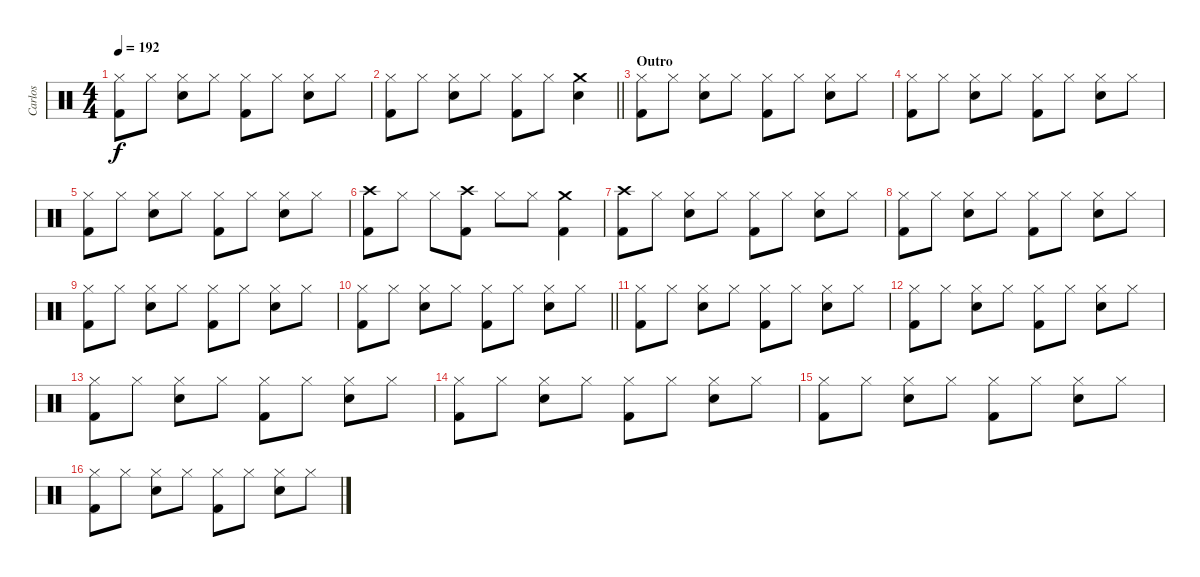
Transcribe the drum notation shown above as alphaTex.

\track ("Carlos" "Carlos") {instrument percussion}
\staff {score}
\articulation defaults
\ts (4 4)
\tempo 192
\clef neutral
\ks c
("Hi-Hat (closed)" "Kick (hit) 2").8{dy f} "Hi-Hat (closed)".8 ("Hi-Hat (closed)" "Snare (hit) 2").8 "Hi-Hat (closed)".8 ("Hi-Hat (closed)" "Kick (hit) 2").8 "Hi-Hat (closed)".8 ("Hi-Hat (closed)" "Snare (hit) 2").8 "Hi-Hat (closed)".8 |
\barLineRight lightlight
("Hi-Hat (closed)" "Kick (hit) 2").8 "Hi-Hat (closed)".8 ("Hi-Hat (closed)" "Snare (hit) 2").8 "Hi-Hat (closed)".8 ("Hi-Hat (closed)" "Kick (hit) 2").8 "Hi-Hat (closed)".8 ("Crash medium (hit)" "Snare (hit) 2").4 |
\section ("" "Outro")
("Hi-Hat (closed)" "Kick (hit) 2").8 "Hi-Hat (closed)".8 ("Hi-Hat (closed)" "Snare (hit) 2").8 "Hi-Hat (closed)".8 ("Hi-Hat (closed)" "Kick (hit) 2").8 "Hi-Hat (closed)".8 ("Hi-Hat (closed)" "Snare (hit) 2").8 "Hi-Hat (closed)".8 |
("Hi-Hat (closed)" "Kick (hit) 2").8 "Hi-Hat (closed)".8 ("Hi-Hat (closed)" "Snare (hit) 2").8 "Hi-Hat (closed)".8 ("Hi-Hat (closed)" "Kick (hit) 2").8 "Hi-Hat (closed)".8 ("Hi-Hat (closed)" "Snare (hit) 2").8 "Hi-Hat (closed)".8 |
("Hi-Hat (closed)" "Kick (hit) 2").8 "Hi-Hat (closed)".8 ("Hi-Hat (closed)" "Snare (hit) 2").8 "Hi-Hat (closed)".8 ("Hi-Hat (closed)" "Kick (hit) 2").8 "Hi-Hat (closed)".8 ("Hi-Hat (closed)" "Snare (hit) 2").8 "Hi-Hat (closed)".8 |
("Crash high (hit)" "Kick (hit) 2").8 "Hi-Hat (closed)".8 "Hi-Hat (closed)".8 ("Crash high (hit)" "Kick (hit) 2").8 "Hi-Hat (closed)".8 "Hi-Hat (closed)".8 ("Crash medium (hit)" "Kick (hit) 2").4 |
("Crash high (hit)" "Kick (hit) 2").8 "Hi-Hat (closed)".8 ("Hi-Hat (closed)" "Snare (hit) 2").8 "Hi-Hat (closed)".8 ("Hi-Hat (closed)" "Kick (hit) 2").8 "Hi-Hat (closed)".8 ("Hi-Hat (closed)" "Snare (hit) 2").8 "Hi-Hat (closed)".8 |
("Hi-Hat (closed)" "Kick (hit) 2").8 "Hi-Hat (closed)".8 ("Hi-Hat (closed)" "Snare (hit) 2").8 "Hi-Hat (closed)".8 ("Hi-Hat (closed)" "Kick (hit) 2").8 "Hi-Hat (closed)".8 ("Hi-Hat (closed)" "Snare (hit) 2").8 "Hi-Hat (closed)".8 |
("Hi-Hat (closed)" "Kick (hit) 2").8 "Hi-Hat (closed)".8 ("Hi-Hat (closed)" "Snare (hit) 2").8 "Hi-Hat (closed)".8 ("Hi-Hat (closed)" "Kick (hit) 2").8 "Hi-Hat (closed)".8 ("Hi-Hat (closed)" "Snare (hit) 2").8 "Hi-Hat (closed)".8 |
\barLineRight lightlight
("Hi-Hat (closed)" "Kick (hit) 2").8 "Hi-Hat (closed)".8 ("Hi-Hat (closed)" "Snare (hit) 2").8 "Hi-Hat (closed)".8 ("Hi-Hat (closed)" "Kick (hit) 2").8 "Hi-Hat (closed)".8 ("Hi-Hat (closed)" "Snare (hit) 2").8 "Hi-Hat (closed)".8 |
("Hi-Hat (closed)" "Kick (hit) 2").8 "Hi-Hat (closed)".8 ("Hi-Hat (closed)" "Snare (hit) 2").8 "Hi-Hat (closed)".8 ("Hi-Hat (closed)" "Kick (hit) 2").8 "Hi-Hat (closed)".8 ("Hi-Hat (closed)" "Snare (hit) 2").8 "Hi-Hat (closed)".8 |
("Hi-Hat (closed)" "Kick (hit) 2").8 "Hi-Hat (closed)".8 ("Hi-Hat (closed)" "Snare (hit) 2").8 "Hi-Hat (closed)".8 ("Hi-Hat (closed)" "Kick (hit) 2").8 "Hi-Hat (closed)".8 ("Hi-Hat (closed)" "Snare (hit) 2").8 "Hi-Hat (closed)".8 |
("Hi-Hat (closed)" "Kick (hit) 2").8 "Hi-Hat (closed)".8 ("Hi-Hat (closed)" "Snare (hit) 2").8 "Hi-Hat (closed)".8 ("Hi-Hat (closed)" "Kick (hit) 2").8 "Hi-Hat (closed)".8 ("Hi-Hat (closed)" "Snare (hit) 2").8 "Hi-Hat (closed)".8 |
("Hi-Hat (closed)" "Kick (hit) 2").8 "Hi-Hat (closed)".8 ("Hi-Hat (closed)" "Snare (hit) 2").8 "Hi-Hat (closed)".8 ("Hi-Hat (closed)" "Kick (hit) 2").8 "Hi-Hat (closed)".8 ("Hi-Hat (closed)" "Snare (hit) 2").8 "Hi-Hat (closed)".8 |
("Hi-Hat (closed)" "Kick (hit) 2").8 "Hi-Hat (closed)".8 ("Hi-Hat (closed)" "Snare (hit) 2").8 "Hi-Hat (closed)".8 ("Hi-Hat (closed)" "Kick (hit) 2").8 "Hi-Hat (closed)".8 ("Hi-Hat (closed)" "Snare (hit) 2").8 "Hi-Hat (closed)".8 |
("Hi-Hat (closed)" "Kick (hit) 2").8 "Hi-Hat (closed)".8 ("Hi-Hat (closed)" "Snare (hit) 2").8 "Hi-Hat (closed)".8 ("Hi-Hat (closed)" "Kick (hit) 2").8 "Hi-Hat (closed)".8 ("Hi-Hat (closed)" "Snare (hit) 2").8 "Hi-Hat (closed)".8
